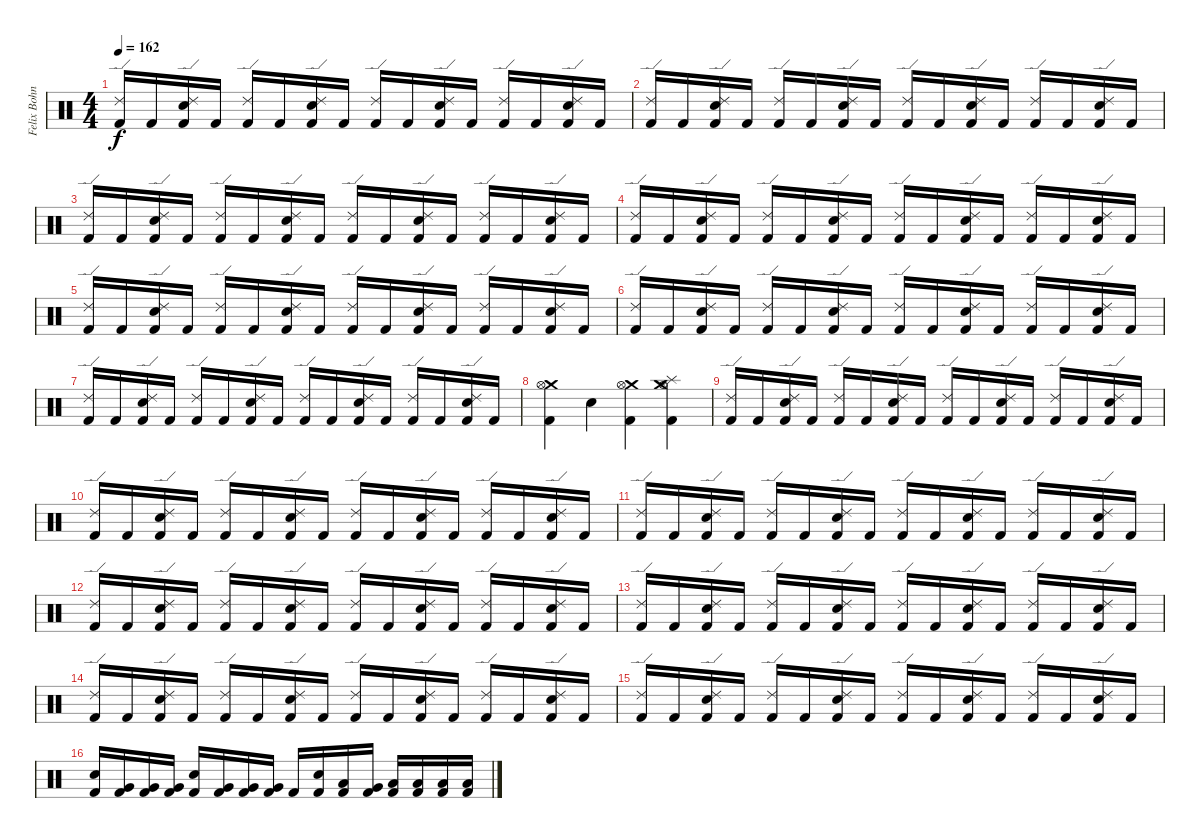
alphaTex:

\track ("Felix Bohnke" "Felix Bohn") {instrument percussion}
\staff {score}
\articulation defaults
\ts (4 4)
\tempo 162
\clef neutral
\ks c
("Ride (edge) 2" "Kick (hit) 2").16{dy f} "Kick (hit) 2".16 ("Electric Snare (hit)" "Ride (edge) 2" "Kick (hit) 2").16 "Kick (hit) 2".16 ("Ride (edge) 2" "Kick (hit) 2").16 "Kick (hit) 2".16 ("Electric Snare (hit)" "Ride (edge) 2" "Kick (hit) 2").16 "Kick (hit) 2".16 ("Ride (edge) 2" "Kick (hit) 2").16 "Kick (hit) 2".16 ("Electric Snare (hit)" "Ride (edge) 2" "Kick (hit) 2").16 "Kick (hit) 2".16 ("Ride (edge) 2" "Kick (hit) 2").16 "Kick (hit) 2".16 ("Electric Snare (hit)" "Ride (edge) 2" "Kick (hit) 2").16 "Kick (hit) 2".16 |
("Ride (edge) 2" "Kick (hit) 2").16 "Kick (hit) 2".16 ("Electric Snare (hit)" "Ride (edge) 2" "Kick (hit) 2").16 "Kick (hit) 2".16 ("Ride (edge) 2" "Kick (hit) 2").16 "Kick (hit) 2".16 ("Electric Snare (hit)" "Ride (edge) 2" "Kick (hit) 2").16 "Kick (hit) 2".16 ("Ride (edge) 2" "Kick (hit) 2").16 "Kick (hit) 2".16 ("Electric Snare (hit)" "Ride (edge) 2" "Kick (hit) 2").16 "Kick (hit) 2".16 ("Ride (edge) 2" "Kick (hit) 2").16 "Kick (hit) 2".16 ("Electric Snare (hit)" "Ride (edge) 2" "Kick (hit) 2").16 "Kick (hit) 2".16 |
("Ride (edge) 2" "Kick (hit) 2").16 "Kick (hit) 2".16 ("Electric Snare (hit)" "Ride (edge) 2" "Kick (hit) 2").16 "Kick (hit) 2".16 ("Ride (edge) 2" "Kick (hit) 2").16 "Kick (hit) 2".16 ("Electric Snare (hit)" "Ride (edge) 2" "Kick (hit) 2").16 "Kick (hit) 2".16 ("Ride (edge) 2" "Kick (hit) 2").16 "Kick (hit) 2".16 ("Electric Snare (hit)" "Ride (edge) 2" "Kick (hit) 2").16 "Kick (hit) 2".16 ("Ride (edge) 2" "Kick (hit) 2").16 "Kick (hit) 2".16 ("Electric Snare (hit)" "Ride (edge) 2" "Kick (hit) 2").16 "Kick (hit) 2".16 |
("Ride (edge) 2" "Kick (hit) 2").16 "Kick (hit) 2".16 ("Electric Snare (hit)" "Ride (edge) 2" "Kick (hit) 2").16 "Kick (hit) 2".16 ("Ride (edge) 2" "Kick (hit) 2").16 "Kick (hit) 2".16 ("Electric Snare (hit)" "Ride (edge) 2" "Kick (hit) 2").16 "Kick (hit) 2".16 ("Ride (edge) 2" "Kick (hit) 2").16 "Kick (hit) 2".16 ("Electric Snare (hit)" "Ride (edge) 2" "Kick (hit) 2").16 "Kick (hit) 2".16 ("Ride (edge) 2" "Kick (hit) 2").16 "Kick (hit) 2".16 ("Electric Snare (hit)" "Ride (edge) 2" "Kick (hit) 2").16 "Kick (hit) 2".16 |
("Ride (edge) 2" "Kick (hit) 2").16 "Kick (hit) 2".16 ("Electric Snare (hit)" "Ride (edge) 2" "Kick (hit) 2").16 "Kick (hit) 2".16 ("Ride (edge) 2" "Kick (hit) 2").16 "Kick (hit) 2".16 ("Electric Snare (hit)" "Ride (edge) 2" "Kick (hit) 2").16 "Kick (hit) 2".16 ("Ride (edge) 2" "Kick (hit) 2").16 "Kick (hit) 2".16 ("Electric Snare (hit)" "Ride (edge) 2" "Kick (hit) 2").16 "Kick (hit) 2".16 ("Ride (edge) 2" "Kick (hit) 2").16 "Kick (hit) 2".16 ("Electric Snare (hit)" "Ride (edge) 2" "Kick (hit) 2").16 "Kick (hit) 2".16 |
("Ride (edge) 2" "Kick (hit) 2").16 "Kick (hit) 2".16 ("Electric Snare (hit)" "Ride (edge) 2" "Kick (hit) 2").16 "Kick (hit) 2".16 ("Ride (edge) 2" "Kick (hit) 2").16 "Kick (hit) 2".16 ("Electric Snare (hit)" "Ride (edge) 2" "Kick (hit) 2").16 "Kick (hit) 2".16 ("Ride (edge) 2" "Kick (hit) 2").16 "Kick (hit) 2".16 ("Electric Snare (hit)" "Ride (edge) 2" "Kick (hit) 2").16 "Kick (hit) 2".16 ("Ride (edge) 2" "Kick (hit) 2").16 "Kick (hit) 2".16 ("Electric Snare (hit)" "Ride (edge) 2" "Kick (hit) 2").16 "Kick (hit) 2".16 |
("Ride (edge) 2" "Kick (hit) 2").16 "Kick (hit) 2".16 ("Electric Snare (hit)" "Ride (edge) 2" "Kick (hit) 2").16 "Kick (hit) 2".16 ("Ride (edge) 2" "Kick (hit) 2").16 "Kick (hit) 2".16 ("Electric Snare (hit)" "Ride (edge) 2" "Kick (hit) 2").16 "Kick (hit) 2".16 ("Ride (edge) 2" "Kick (hit) 2").16 "Kick (hit) 2".16 ("Electric Snare (hit)" "Ride (edge) 2" "Kick (hit) 2").16 "Kick (hit) 2".16 ("Ride (edge) 2" "Kick (hit) 2").16 "Kick (hit) 2".16 ("Electric Snare (hit)" "Ride (edge) 2" "Kick (hit) 2").16 "Kick (hit) 2".16 |
("Crash medium (hit)" "Hi-Hat (open)" "Kick (hit) 2").4 "Electric Snare (hit)".4 ("Crash medium (hit)" "Hi-Hat (open)" "Kick (hit) 2").4 ("Crash medium (hit)" "Splash (hit)" "Hi-Hat (open)" "Kick (hit) 2").4 |
("Ride (edge) 2" "Kick (hit) 2").16 "Kick (hit) 2".16 ("Electric Snare (hit)" "Ride (edge) 2" "Kick (hit) 2").16 "Kick (hit) 2".16 ("Ride (edge) 2" "Kick (hit) 2").16 "Kick (hit) 2".16 ("Electric Snare (hit)" "Ride (edge) 2" "Kick (hit) 2").16 "Kick (hit) 2".16 ("Ride (edge) 2" "Kick (hit) 2").16 "Kick (hit) 2".16 ("Electric Snare (hit)" "Ride (edge) 2" "Kick (hit) 2").16 "Kick (hit) 2".16 ("Ride (edge) 2" "Kick (hit) 2").16 "Kick (hit) 2".16 ("Electric Snare (hit)" "Ride (edge) 2" "Kick (hit) 2").16 "Kick (hit) 2".16 |
("Ride (edge) 2" "Kick (hit) 2").16 "Kick (hit) 2".16 ("Electric Snare (hit)" "Ride (edge) 2" "Kick (hit) 2").16 "Kick (hit) 2".16 ("Ride (edge) 2" "Kick (hit) 2").16 "Kick (hit) 2".16 ("Electric Snare (hit)" "Ride (edge) 2" "Kick (hit) 2").16 "Kick (hit) 2".16 ("Ride (edge) 2" "Kick (hit) 2").16 "Kick (hit) 2".16 ("Electric Snare (hit)" "Ride (edge) 2" "Kick (hit) 2").16 "Kick (hit) 2".16 ("Ride (edge) 2" "Kick (hit) 2").16 "Kick (hit) 2".16 ("Electric Snare (hit)" "Ride (edge) 2" "Kick (hit) 2").16 "Kick (hit) 2".16 |
("Ride (edge) 2" "Kick (hit) 2").16 "Kick (hit) 2".16 ("Electric Snare (hit)" "Ride (edge) 2" "Kick (hit) 2").16 "Kick (hit) 2".16 ("Ride (edge) 2" "Kick (hit) 2").16 "Kick (hit) 2".16 ("Electric Snare (hit)" "Ride (edge) 2" "Kick (hit) 2").16 "Kick (hit) 2".16 ("Ride (edge) 2" "Kick (hit) 2").16 "Kick (hit) 2".16 ("Electric Snare (hit)" "Ride (edge) 2" "Kick (hit) 2").16 "Kick (hit) 2".16 ("Ride (edge) 2" "Kick (hit) 2").16 "Kick (hit) 2".16 ("Electric Snare (hit)" "Ride (edge) 2" "Kick (hit) 2").16 "Kick (hit) 2".16 |
("Ride (edge) 2" "Kick (hit) 2").16 "Kick (hit) 2".16 ("Electric Snare (hit)" "Ride (edge) 2" "Kick (hit) 2").16 "Kick (hit) 2".16 ("Ride (edge) 2" "Kick (hit) 2").16 "Kick (hit) 2".16 ("Electric Snare (hit)" "Ride (edge) 2" "Kick (hit) 2").16 "Kick (hit) 2".16 ("Ride (edge) 2" "Kick (hit) 2").16 "Kick (hit) 2".16 ("Electric Snare (hit)" "Ride (edge) 2" "Kick (hit) 2").16 "Kick (hit) 2".16 ("Ride (edge) 2" "Kick (hit) 2").16 "Kick (hit) 2".16 ("Electric Snare (hit)" "Ride (edge) 2" "Kick (hit) 2").16 "Kick (hit) 2".16 |
("Ride (edge) 2" "Kick (hit) 2").16 "Kick (hit) 2".16 ("Electric Snare (hit)" "Ride (edge) 2" "Kick (hit) 2").16 "Kick (hit) 2".16 ("Ride (edge) 2" "Kick (hit) 2").16 "Kick (hit) 2".16 ("Electric Snare (hit)" "Ride (edge) 2" "Kick (hit) 2").16 "Kick (hit) 2".16 ("Ride (edge) 2" "Kick (hit) 2").16 "Kick (hit) 2".16 ("Electric Snare (hit)" "Ride (edge) 2" "Kick (hit) 2").16 "Kick (hit) 2".16 ("Ride (edge) 2" "Kick (hit) 2").16 "Kick (hit) 2".16 ("Electric Snare (hit)" "Ride (edge) 2" "Kick (hit) 2").16 "Kick (hit) 2".16 |
("Ride (edge) 2" "Kick (hit) 2").16 "Kick (hit) 2".16 ("Electric Snare (hit)" "Ride (edge) 2" "Kick (hit) 2").16 "Kick (hit) 2".16 ("Ride (edge) 2" "Kick (hit) 2").16 "Kick (hit) 2".16 ("Electric Snare (hit)" "Ride (edge) 2" "Kick (hit) 2").16 "Kick (hit) 2".16 ("Ride (edge) 2" "Kick (hit) 2").16 "Kick (hit) 2".16 ("Electric Snare (hit)" "Ride (edge) 2" "Kick (hit) 2").16 "Kick (hit) 2".16 ("Ride (edge) 2" "Kick (hit) 2").16 "Kick (hit) 2".16 ("Electric Snare (hit)" "Ride (edge) 2" "Kick (hit) 2").16 "Kick (hit) 2".16 |
("Ride (edge) 2" "Kick (hit) 2").16 "Kick (hit) 2".16 ("Electric Snare (hit)" "Ride (edge) 2" "Kick (hit) 2").16 "Kick (hit) 2".16 ("Ride (edge) 2" "Kick (hit) 2").16 "Kick (hit) 2".16 ("Electric Snare (hit)" "Ride (edge) 2" "Kick (hit) 2").16 "Kick (hit) 2".16 ("Ride (edge) 2" "Kick (hit) 2").16 "Kick (hit) 2".16 ("Electric Snare (hit)" "Ride (edge) 2" "Kick (hit) 2").16 "Kick (hit) 2".16 ("Ride (edge) 2" "Kick (hit) 2").16 "Kick (hit) 2".16 ("Electric Snare (hit)" "Ride (edge) 2" "Kick (hit) 2").16 "Kick (hit) 2".16 |
("Electric Snare (hit)" "Kick (hit) 2").16 ("Very Low Tom (hit)" "Kick (hit) 2").16 ("Very Low Tom (hit)" "Kick (hit) 2").16 ("Very Low Tom (hit)" "Kick (hit) 2").16 ("Electric Snare (hit)" "Kick (hit) 2").16 ("Very Low Tom (hit)" "Kick (hit) 2").16 ("Very Low Tom (hit)" "Kick (hit) 2").16 ("Very Low Tom (hit)" "Kick (hit) 2").16 "Kick (hit) 2".16 ("Electric Snare (hit)" "Kick (hit) 2").16 ("Low Tom (hit)" "Kick (hit) 2").16 ("Very Low Tom (hit)" "Kick (hit) 2").16 ("Low Floor Tom (hit)" "Kick (hit) 2").16 ("Low Floor Tom (hit)" "Kick (hit) 2").16 ("Low Floor Tom (hit)" "Kick (hit) 2").16 ("Low Floor Tom (hit)" "Kick (hit) 2").16
